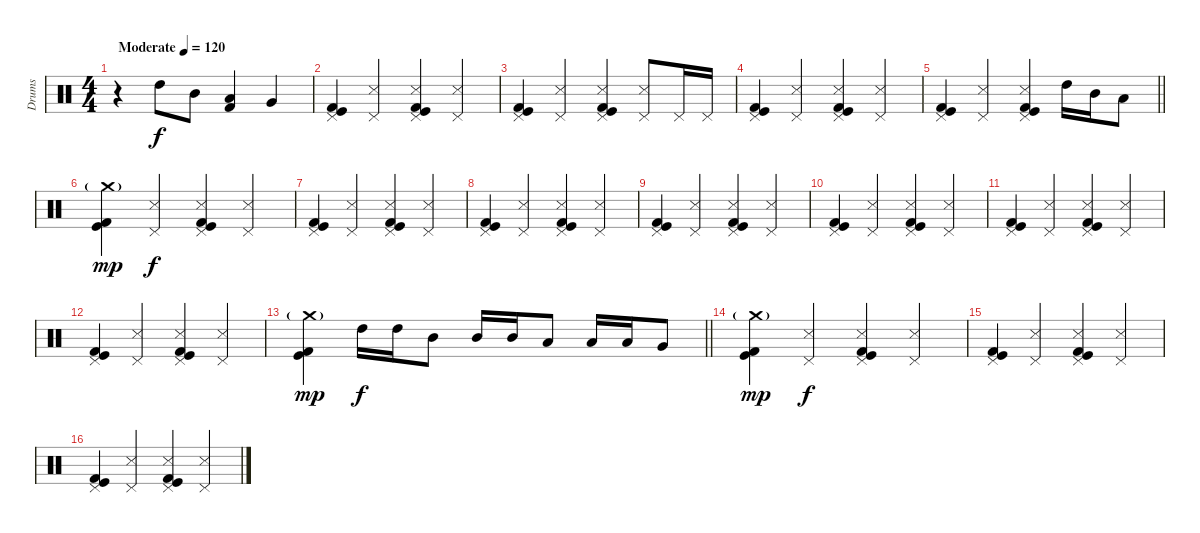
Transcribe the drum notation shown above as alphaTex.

\track ("Drums" "Drums") {instrument percussion}
\staff {score}
\articulation defaults
\ts (4 4)
\tempo (120 "Moderate")
\clef neutral
\ks c
r.4{dy f} "High Tom (hit)".8 "Mid Tom (hit)".8 ("Kick (hit) 2" "Low Tom (hit)").4 "Very Low Tom (hit)".4 |
("Pedal Hi-Hat (hit)" "Kick (hit)" "Kick (hit) 2").4 ("Pedal Hi-Hat (hit)" "Snare (side stick) 3").4 ("Pedal Hi-Hat (hit)" "Snare (side stick) 3" "Kick (hit)" "Kick (hit) 2").4 ("Pedal Hi-Hat (hit)" "Snare (side stick) 3").4 |
("Pedal Hi-Hat (hit)" "Kick (hit)" "Kick (hit) 2").4 ("Pedal Hi-Hat (hit)" "Snare (side stick) 3").4 ("Pedal Hi-Hat (hit)" "Snare (side stick) 3" "Kick (hit)" "Kick (hit) 2").4 ("Pedal Hi-Hat (hit)" "Snare (side stick) 3").8 "Pedal Hi-Hat (hit)".16 "Pedal Hi-Hat (hit)".16 |
("Pedal Hi-Hat (hit)" "Kick (hit)" "Kick (hit) 2").4 ("Pedal Hi-Hat (hit)" "Snare (side stick) 3").4 ("Pedal Hi-Hat (hit)" "Snare (side stick) 3" "Kick (hit)" "Kick (hit) 2").4 ("Pedal Hi-Hat (hit)" "Snare (side stick) 3").4 |
\barLineRight lightlight
("Pedal Hi-Hat (hit)" "Kick (hit)" "Kick (hit) 2").4 ("Pedal Hi-Hat (hit)" "Snare (side stick) 3").4 ("Pedal Hi-Hat (hit)" "Snare (side stick) 3" "Kick (hit)" "Kick (hit) 2").4 "High Tom (hit)".16 "Mid Tom (hit)".16 "Low Tom (hit)".8 |
\section ("" "")
("Crash medium (hit)"{g} "Kick (hit)" "Kick (hit) 2").4{dy mp} ("Pedal Hi-Hat (hit)" "Snare (side stick) 3").4{dy f} ("Pedal Hi-Hat (hit)" "Snare (side stick) 3" "Kick (hit)" "Kick (hit) 2").4 ("Pedal Hi-Hat (hit)" "Snare (side stick) 3").4 |
("Pedal Hi-Hat (hit)" "Kick (hit)" "Kick (hit) 2").4 ("Pedal Hi-Hat (hit)" "Snare (side stick) 3").4 ("Pedal Hi-Hat (hit)" "Snare (side stick) 3" "Kick (hit)" "Kick (hit) 2").4 ("Pedal Hi-Hat (hit)" "Snare (side stick) 3").4 |
("Pedal Hi-Hat (hit)" "Kick (hit)" "Kick (hit) 2").4 ("Pedal Hi-Hat (hit)" "Snare (side stick) 3").4 ("Pedal Hi-Hat (hit)" "Snare (side stick) 3" "Kick (hit)" "Kick (hit) 2").4 ("Pedal Hi-Hat (hit)" "Snare (side stick) 3").4 |
("Pedal Hi-Hat (hit)" "Kick (hit)" "Kick (hit) 2").4 ("Pedal Hi-Hat (hit)" "Snare (side stick) 3").4 ("Pedal Hi-Hat (hit)" "Snare (side stick) 3" "Kick (hit)" "Kick (hit) 2").4 ("Pedal Hi-Hat (hit)" "Snare (side stick) 3").4 |
("Pedal Hi-Hat (hit)" "Kick (hit)" "Kick (hit) 2").4 ("Pedal Hi-Hat (hit)" "Snare (side stick) 3").4 ("Pedal Hi-Hat (hit)" "Snare (side stick) 3" "Kick (hit)" "Kick (hit) 2").4 ("Pedal Hi-Hat (hit)" "Snare (side stick) 3").4 |
("Pedal Hi-Hat (hit)" "Kick (hit)" "Kick (hit) 2").4 ("Pedal Hi-Hat (hit)" "Snare (side stick) 3").4 ("Pedal Hi-Hat (hit)" "Snare (side stick) 3" "Kick (hit)" "Kick (hit) 2").4 ("Pedal Hi-Hat (hit)" "Snare (side stick) 3").4 |
("Pedal Hi-Hat (hit)" "Kick (hit)" "Kick (hit) 2").4 ("Pedal Hi-Hat (hit)" "Snare (side stick) 3").4 ("Pedal Hi-Hat (hit)" "Snare (side stick) 3" "Kick (hit)" "Kick (hit) 2").4 ("Pedal Hi-Hat (hit)" "Snare (side stick) 3").4 |
\barLineRight lightlight
("Crash medium (hit)"{g} "Kick (hit)" "Kick (hit) 2").4{dy mp} "High Tom (hit)".16{dy f} "High Tom (hit)".16 "Mid Tom (hit)".8 "Mid Tom (hit)".16 "Mid Tom (hit)".16 "Low Tom (hit)".8 "Low Tom (hit)".16 "Low Tom (hit)".16 "Very Low Tom (hit)".8 |
\section ("" "")
("Crash medium (hit)"{g} "Kick (hit)" "Kick (hit) 2").4{dy mp} ("Pedal Hi-Hat (hit)" "Snare (side stick) 3").4{dy f} ("Pedal Hi-Hat (hit)" "Snare (side stick) 3" "Kick (hit)" "Kick (hit) 2").4 ("Pedal Hi-Hat (hit)" "Snare (side stick) 3").4 |
("Pedal Hi-Hat (hit)" "Kick (hit)" "Kick (hit) 2").4 ("Pedal Hi-Hat (hit)" "Snare (side stick) 3").4 ("Pedal Hi-Hat (hit)" "Snare (side stick) 3" "Kick (hit)" "Kick (hit) 2").4 ("Pedal Hi-Hat (hit)" "Snare (side stick) 3").4 |
("Pedal Hi-Hat (hit)" "Kick (hit)" "Kick (hit) 2").4 ("Pedal Hi-Hat (hit)" "Snare (side stick) 3").4 ("Pedal Hi-Hat (hit)" "Snare (side stick) 3" "Kick (hit)" "Kick (hit) 2").4 ("Pedal Hi-Hat (hit)" "Snare (side stick) 3").4
